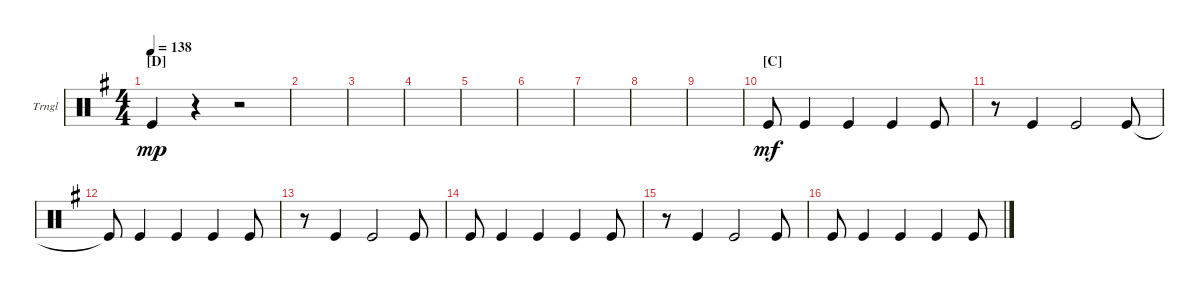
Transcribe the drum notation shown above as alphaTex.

\defaultSystemsLayout 4
\bracketExtendMode groupsimilarinstruments
\firstSystemTrackNameOrientation horizontal
\otherSystemsTrackNameOrientation horizontal
\track ("Triangle" "Trngl") {instrument percussion}
\staff {score}
\articulation defaults
\ts (4 4)
\section ("D" "")
\tempo 138
\clef neutral
\ks g "Kick (hit)".4{dy mp}
r.4 r.2 |
|
|
|
|
|
|
|
|
\section ("C" "")
"Kick (hit)".8{dy mf} "Kick (hit)".4 "Kick (hit)".4 "Kick (hit)".4 "Kick (hit)".8 |
r.8 "Kick (hit)".4 "Kick (hit)".2 "Kick (hit)".8 |
"Kick (hit)"{t}.8 "Kick (hit)".4 "Kick (hit)".4 "Kick (hit)".4 "Kick (hit)".8 |
r.8 "Kick (hit)".4 "Kick (hit)".2 "Kick (hit)".8 |
"Kick (hit)".8 "Kick (hit)".4 "Kick (hit)".4 "Kick (hit)".4 "Kick (hit)".8 |
r.8 "Kick (hit)".4 "Kick (hit)".2 "Kick (hit)".8 |
"Kick (hit)".8 "Kick (hit)".4 "Kick (hit)".4 "Kick (hit)".4 "Kick (hit)".8
